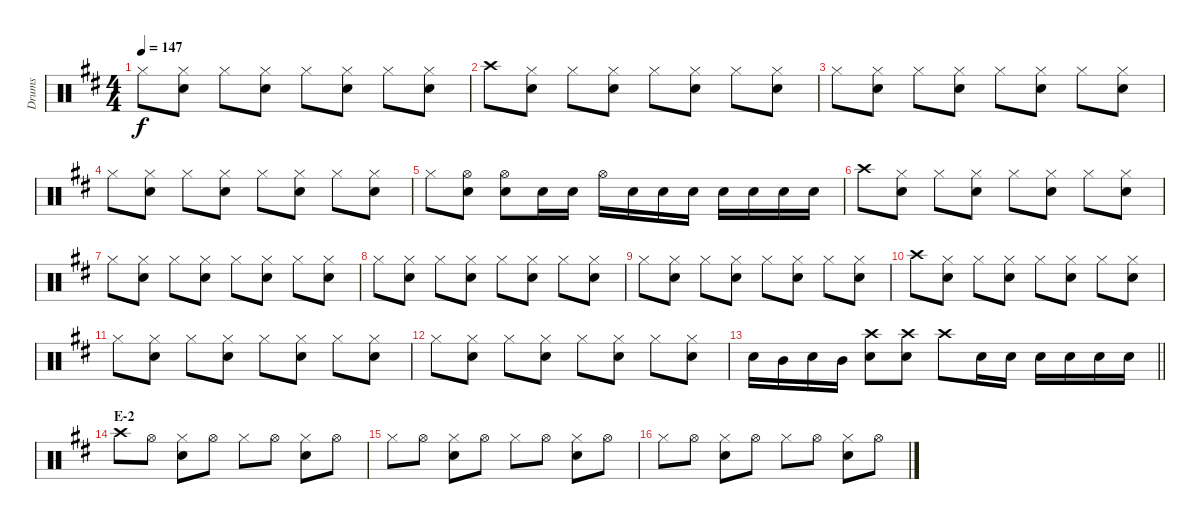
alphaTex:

\track ("Drums" "Drums") {instrument percussion}
\staff {score}
\articulation defaults
\ts (4 4)
\tempo 147
\clef neutral
\ks d "Hi-Hat (closed)".8{dy f}
("Hi-Hat (closed)" "Snare (hit) 2").8 "Hi-Hat (closed)".8 ("Hi-Hat (closed)" "Snare (hit) 2").8 "Hi-Hat (closed)".8 ("Hi-Hat (closed)" "Snare (hit) 2").8 "Hi-Hat (closed)".8 ("Hi-Hat (closed)" "Snare (hit) 2").8 |
"Crash high (hit)".8 ("Hi-Hat (closed)" "Snare (hit) 2").8 "Hi-Hat (closed)".8 ("Hi-Hat (closed)" "Snare (hit) 2").8 "Hi-Hat (closed)".8 ("Hi-Hat (closed)" "Snare (hit) 2").8 "Hi-Hat (closed)".8 ("Hi-Hat (closed)" "Snare (hit) 2").8 |
"Hi-Hat (closed)".8 ("Hi-Hat (closed)" "Snare (hit) 2").8 "Hi-Hat (closed)".8 ("Hi-Hat (closed)" "Snare (hit) 2").8 "Hi-Hat (closed)".8 ("Hi-Hat (closed)" "Snare (hit) 2").8 "Hi-Hat (closed)".8 ("Hi-Hat (closed)" "Snare (hit) 2").8 |
"Hi-Hat (closed)".8 ("Hi-Hat (closed)" "Snare (hit) 2").8 "Hi-Hat (closed)".8 ("Hi-Hat (closed)" "Snare (hit) 2").8 "Hi-Hat (closed)".8 ("Hi-Hat (closed)" "Snare (hit) 2").8 "Hi-Hat (closed)".8 ("Hi-Hat (closed)" "Snare (hit) 2").8 |
"Hi-Hat (closed)".8 ("Hi-Hat (open)" "Snare (hit) 2").8 ("Hi-Hat (open)" "Snare (hit) 2").8 "Snare (hit) 2".16 "Snare (hit) 2".16 "Hi-Hat (open)".16 "Snare (hit) 2".16 "Snare (hit) 2".16 "Snare (hit) 2".16 "Snare (hit) 2".16 "Snare (hit) 2".16 "Snare (hit) 2".16 "Snare (hit) 2".16 |
"Crash high (hit)".8 ("Hi-Hat (closed)" "Snare (hit) 2").8 "Hi-Hat (closed)".8 ("Hi-Hat (closed)" "Snare (hit) 2").8 "Hi-Hat (closed)".8 ("Hi-Hat (closed)" "Snare (hit) 2").8 "Hi-Hat (closed)".8 ("Hi-Hat (closed)" "Snare (hit) 2").8 |
"Hi-Hat (closed)".8 ("Hi-Hat (closed)" "Snare (hit) 2").8 "Hi-Hat (closed)".8 ("Hi-Hat (closed)" "Snare (hit) 2").8 "Hi-Hat (closed)".8 ("Hi-Hat (closed)" "Snare (hit) 2").8 "Hi-Hat (closed)".8 ("Hi-Hat (closed)" "Snare (hit) 2").8 |
"Hi-Hat (closed)".8 ("Hi-Hat (closed)" "Snare (hit) 2").8 "Hi-Hat (closed)".8 ("Hi-Hat (closed)" "Snare (hit) 2").8 "Hi-Hat (closed)".8 ("Hi-Hat (closed)" "Snare (hit) 2").8 "Hi-Hat (closed)".8 ("Hi-Hat (closed)" "Snare (hit) 2").8 |
"Hi-Hat (closed)".8 ("Hi-Hat (closed)" "Snare (hit) 2").8 "Hi-Hat (closed)".8 ("Hi-Hat (closed)" "Snare (hit) 2").8 "Hi-Hat (closed)".8 ("Hi-Hat (closed)" "Snare (hit) 2").8 "Hi-Hat (closed)".8 ("Hi-Hat (closed)" "Snare (hit) 2").8 |
"Crash high (hit)".8 ("Hi-Hat (closed)" "Snare (hit) 2").8 "Hi-Hat (closed)".8 ("Hi-Hat (closed)" "Snare (hit) 2").8 "Hi-Hat (closed)".8 ("Hi-Hat (closed)" "Snare (hit) 2").8 "Hi-Hat (closed)".8 ("Hi-Hat (closed)" "Snare (hit) 2").8 |
"Hi-Hat (closed)".8 ("Hi-Hat (closed)" "Snare (hit) 2").8 "Hi-Hat (closed)".8 ("Hi-Hat (closed)" "Snare (hit) 2").8 "Hi-Hat (closed)".8 ("Hi-Hat (closed)" "Snare (hit) 2").8 "Hi-Hat (closed)".8 ("Hi-Hat (closed)" "Snare (hit) 2").8 |
"Hi-Hat (closed)".8 ("Hi-Hat (closed)" "Snare (hit) 2").8 "Hi-Hat (closed)".8 ("Hi-Hat (closed)" "Snare (hit) 2").8 "Hi-Hat (closed)".8 ("Hi-Hat (closed)" "Snare (hit) 2").8 "Hi-Hat (closed)".8 ("Hi-Hat (closed)" "Snare (hit) 2").8 |
\barLineRight lightlight "Snare (hit) 2".16 "Mid Tom (hit)".16 "Snare (hit) 2".16 "Mid Tom (hit)".16
("Snare (hit) 2" "Crash high (hit)").8 ("Crash high (hit)" "Snare (hit) 2").8 "Crash high (hit)".8 "Snare (hit) 2".16 "Snare (hit) 2".16 "Snare (hit) 2".16 "Snare (hit) 2".16 "Snare (hit) 2".16 "Snare (hit) 2".16 |
\section ("" "E-2")
"Crash high (hit)".8 "Hi-Hat (open)".8 ("Hi-Hat (closed)" "Snare (hit) 2").8 "Hi-Hat (open)".8 "Hi-Hat (closed)".8 "Hi-Hat (open)".8 ("Hi-Hat (closed)" "Snare (hit) 2").8 "Hi-Hat (open)".8 |
"Hi-Hat (closed)".8 "Hi-Hat (open)".8 ("Hi-Hat (closed)" "Snare (hit) 2").8 "Hi-Hat (open)".8 "Hi-Hat (closed)".8 "Hi-Hat (open)".8 ("Hi-Hat (closed)" "Snare (hit) 2").8 "Hi-Hat (open)".8 |
"Hi-Hat (closed)".8 "Hi-Hat (open)".8 ("Hi-Hat (closed)" "Snare (hit) 2").8 "Hi-Hat (open)".8 "Hi-Hat (closed)".8 "Hi-Hat (open)".8 ("Hi-Hat (closed)" "Snare (hit) 2").8 "Hi-Hat (open)".8
